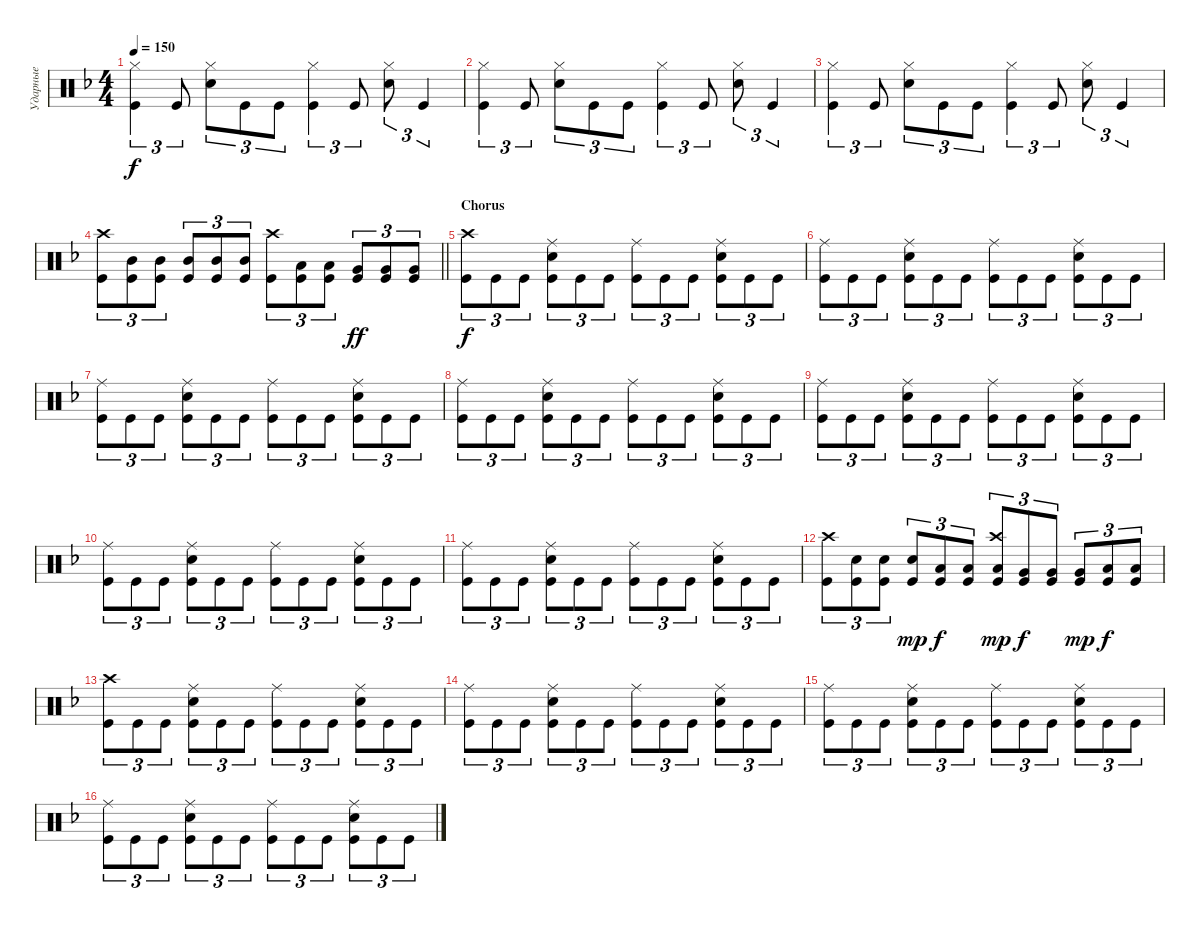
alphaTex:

\track ("Ударные" "Ударные") {instrument percussion}
\staff {score}
\articulation defaults
\ts (4 4)
\tempo 150
\clef neutral
\ks dminor
("Kick (hit)" "Hi-Hat (closed)").4{tu (3 2) dy f} "Kick (hit)".8{tu (3 2)} ("Snare (hit) 2" "Hi-Hat (closed)").8{tu (3 2)} "Kick (hit)".8{tu (3 2)} "Kick (hit)".8{tu (3 2)} ("Kick (hit)" "Hi-Hat (closed)").4{tu (3 2)} "Kick (hit)".8{tu (3 2)} ("Snare (hit) 2" "Hi-Hat (closed)").8{tu (3 2)} "Kick (hit)".4{tu (3 2)} |
("Kick (hit)" "Hi-Hat (closed)").4{tu (3 2)} "Kick (hit)".8{tu (3 2)} ("Snare (hit) 2" "Hi-Hat (closed)").8{tu (3 2)} "Kick (hit)".8{tu (3 2)} "Kick (hit)".8{tu (3 2)} ("Kick (hit)" "Hi-Hat (closed)").4{tu (3 2)} "Kick (hit)".8{tu (3 2)} ("Snare (hit) 2" "Hi-Hat (closed)").8{tu (3 2)} "Kick (hit)".4{tu (3 2)} |
("Kick (hit)" "Hi-Hat (closed)").4{tu (3 2)} "Kick (hit)".8{tu (3 2)} ("Snare (hit) 2" "Hi-Hat (closed)").8{tu (3 2)} "Kick (hit)".8{tu (3 2)} "Kick (hit)".8{tu (3 2)} ("Kick (hit)" "Hi-Hat (closed)").4{tu (3 2)} "Kick (hit)".8{tu (3 2)} ("Snare (hit) 2" "Hi-Hat (closed)").8{tu (3 2)} "Kick (hit)".4{tu (3 2)} |
\barLineRight lightlight
("Kick (hit)" "Crash high (hit)").8{tu (3 2)} ("Mid Tom (hit)" "Kick (hit)").8{tu (3 2)} ("Mid Tom (hit)" "Kick (hit)").8{tu (3 2)} ("Mid Tom (hit)" "Kick (hit)").8{tu (3 2)} ("Mid Tom (hit)" "Kick (hit)").8{tu (3 2)} ("Mid Tom (hit)" "Kick (hit)").8{tu (3 2)} ("Kick (hit)" "Crash high (hit)").8{tu (3 2)} ("Low Tom (hit)" "Kick (hit)").8{tu (3 2)} ("Low Tom (hit)" "Kick (hit)").8{tu (3 2)} ("Very Low Tom (hit)" "Kick (hit)").8{tu (3 2) dy ff} ("Very Low Tom (hit)" "Kick (hit)").8{tu (3 2)} ("Very Low Tom (hit)" "Kick (hit)").8{tu (3 2)} |
\section ("" "Chorus")
("Kick (hit)" "Crash high (hit)").8{tu (3 2) dy f} "Kick (hit)".8{tu (3 2)} "Kick (hit)".8{tu (3 2)} ("Snare (hit) 2" "Kick (hit)" "Ride (middle)").8{tu (3 2)} "Kick (hit)".8{tu (3 2)} "Kick (hit)".8{tu (3 2)} ("Kick (hit)" "Ride (middle)").8{tu (3 2)} "Kick (hit)".8{tu (3 2)} "Kick (hit)".8{tu (3 2)} ("Kick (hit)" "Snare (hit) 2" "Ride (middle)").8{tu (3 2)} "Kick (hit)".8{tu (3 2)} "Kick (hit)".8{tu (3 2)} |
("Kick (hit)" "Ride (middle)").8{tu (3 2)} "Kick (hit)".8{tu (3 2)} "Kick (hit)".8{tu (3 2)} ("Snare (hit) 2" "Kick (hit)" "Ride (middle)").8{tu (3 2)} "Kick (hit)".8{tu (3 2)} "Kick (hit)".8{tu (3 2)} ("Kick (hit)" "Ride (middle)").8{tu (3 2)} "Kick (hit)".8{tu (3 2)} "Kick (hit)".8{tu (3 2)} ("Kick (hit)" "Snare (hit) 2" "Ride (middle)").8{tu (3 2)} "Kick (hit)".8{tu (3 2)} "Kick (hit)".8{tu (3 2)} |
("Kick (hit)" "Ride (middle)").8{tu (3 2)} "Kick (hit)".8{tu (3 2)} "Kick (hit)".8{tu (3 2)} ("Snare (hit) 2" "Kick (hit)" "Ride (middle)").8{tu (3 2)} "Kick (hit)".8{tu (3 2)} "Kick (hit)".8{tu (3 2)} ("Kick (hit)" "Ride (middle)").8{tu (3 2)} "Kick (hit)".8{tu (3 2)} "Kick (hit)".8{tu (3 2)} ("Kick (hit)" "Snare (hit) 2" "Ride (middle)").8{tu (3 2)} "Kick (hit)".8{tu (3 2)} "Kick (hit)".8{tu (3 2)} |
("Kick (hit)" "Ride (middle)").8{tu (3 2)} "Kick (hit)".8{tu (3 2)} "Kick (hit)".8{tu (3 2)} ("Snare (hit) 2" "Kick (hit)" "Ride (middle)").8{tu (3 2)} "Kick (hit)".8{tu (3 2)} "Kick (hit)".8{tu (3 2)} ("Kick (hit)" "Ride (middle)").8{tu (3 2)} "Kick (hit)".8{tu (3 2)} "Kick (hit)".8{tu (3 2)} ("Kick (hit)" "Snare (hit) 2" "Ride (middle)").8{tu (3 2)} "Kick (hit)".8{tu (3 2)} "Kick (hit)".8{tu (3 2)} |
("Kick (hit)" "Ride (middle)").8{tu (3 2)} "Kick (hit)".8{tu (3 2)} "Kick (hit)".8{tu (3 2)} ("Snare (hit) 2" "Kick (hit)" "Ride (middle)").8{tu (3 2)} "Kick (hit)".8{tu (3 2)} "Kick (hit)".8{tu (3 2)} ("Kick (hit)" "Ride (middle)").8{tu (3 2)} "Kick (hit)".8{tu (3 2)} "Kick (hit)".8{tu (3 2)} ("Kick (hit)" "Snare (hit) 2" "Ride (middle)").8{tu (3 2)} "Kick (hit)".8{tu (3 2)} "Kick (hit)".8{tu (3 2)} |
("Kick (hit)" "Ride (middle)").8{tu (3 2)} "Kick (hit)".8{tu (3 2)} "Kick (hit)".8{tu (3 2)} ("Snare (hit) 2" "Kick (hit)" "Ride (middle)").8{tu (3 2)} "Kick (hit)".8{tu (3 2)} "Kick (hit)".8{tu (3 2)} ("Kick (hit)" "Ride (middle)").8{tu (3 2)} "Kick (hit)".8{tu (3 2)} "Kick (hit)".8{tu (3 2)} ("Kick (hit)" "Snare (hit) 2" "Ride (middle)").8{tu (3 2)} "Kick (hit)".8{tu (3 2)} "Kick (hit)".8{tu (3 2)} |
("Kick (hit)" "Ride (middle)").8{tu (3 2)} "Kick (hit)".8{tu (3 2)} "Kick (hit)".8{tu (3 2)} ("Snare (hit) 2" "Kick (hit)" "Ride (middle)").8{tu (3 2)} "Kick (hit)".8{tu (3 2)} "Kick (hit)".8{tu (3 2)} ("Kick (hit)" "Ride (middle)").8{tu (3 2)} "Kick (hit)".8{tu (3 2)} "Kick (hit)".8{tu (3 2)} ("Kick (hit)" "Snare (hit) 2" "Ride (middle)").8{tu (3 2)} "Kick (hit)".8{tu (3 2)} "Kick (hit)".8{tu (3 2)} |
("Kick (hit)" "Crash high (hit)").8{tu (3 2)} ("Snare (hit) 2" "Kick (hit)").8{tu (3 2)} ("Snare (hit) 2" "Kick (hit)").8{tu (3 2)} ("Snare (hit) 2" "Kick (hit)").8{tu (3 2) dy mp} ("Kick (hit)" "Low Tom (hit)").8{tu (3 2) dy f} ("Kick (hit)" "Low Tom (hit)").8{tu (3 2)} ("Kick (hit)" "Crash high (hit)" "Low Tom (hit)").8{tu (3 2) dy mp} ("Very Low Tom (hit)" "Kick (hit)").8{tu (3 2) dy f} ("Very Low Tom (hit)" "Kick (hit)").8{tu (3 2)} ("Very Low Tom (hit)" "Kick (hit)").8{tu (3 2) dy mp} ("Low Floor Tom (hit)" "Kick (hit)").8{tu (3 2) dy f} ("Low Floor Tom (hit)" "Kick (hit)").8{tu (3 2)} |
("Kick (hit)" "Crash high (hit)").8{tu (3 2)} "Kick (hit)".8{tu (3 2)} "Kick (hit)".8{tu (3 2)} ("Snare (hit) 2" "Kick (hit)" "Ride (middle)").8{tu (3 2)} "Kick (hit)".8{tu (3 2)} "Kick (hit)".8{tu (3 2)} ("Kick (hit)" "Ride (middle)").8{tu (3 2)} "Kick (hit)".8{tu (3 2)} "Kick (hit)".8{tu (3 2)} ("Kick (hit)" "Snare (hit) 2" "Ride (middle)").8{tu (3 2)} "Kick (hit)".8{tu (3 2)} "Kick (hit)".8{tu (3 2)} |
("Kick (hit)" "Ride (middle)").8{tu (3 2)} "Kick (hit)".8{tu (3 2)} "Kick (hit)".8{tu (3 2)} ("Snare (hit) 2" "Kick (hit)" "Ride (middle)").8{tu (3 2)} "Kick (hit)".8{tu (3 2)} "Kick (hit)".8{tu (3 2)} ("Kick (hit)" "Ride (middle)").8{tu (3 2)} "Kick (hit)".8{tu (3 2)} "Kick (hit)".8{tu (3 2)} ("Kick (hit)" "Snare (hit) 2" "Ride (middle)").8{tu (3 2)} "Kick (hit)".8{tu (3 2)} "Kick (hit)".8{tu (3 2)} |
("Kick (hit)" "Ride (middle)").8{tu (3 2)} "Kick (hit)".8{tu (3 2)} "Kick (hit)".8{tu (3 2)} ("Snare (hit) 2" "Kick (hit)" "Ride (middle)").8{tu (3 2)} "Kick (hit)".8{tu (3 2)} "Kick (hit)".8{tu (3 2)} ("Kick (hit)" "Ride (middle)").8{tu (3 2)} "Kick (hit)".8{tu (3 2)} "Kick (hit)".8{tu (3 2)} ("Kick (hit)" "Snare (hit) 2" "Ride (middle)").8{tu (3 2)} "Kick (hit)".8{tu (3 2)} "Kick (hit)".8{tu (3 2)} |
("Kick (hit)" "Ride (middle)").8{tu (3 2)} "Kick (hit)".8{tu (3 2)} "Kick (hit)".8{tu (3 2)} ("Snare (hit) 2" "Kick (hit)" "Ride (middle)").8{tu (3 2)} "Kick (hit)".8{tu (3 2)} "Kick (hit)".8{tu (3 2)} ("Kick (hit)" "Ride (middle)").8{tu (3 2)} "Kick (hit)".8{tu (3 2)} "Kick (hit)".8{tu (3 2)} ("Kick (hit)" "Snare (hit) 2" "Ride (middle)").8{tu (3 2)} "Kick (hit)".8{tu (3 2)} "Kick (hit)".8{tu (3 2)}
